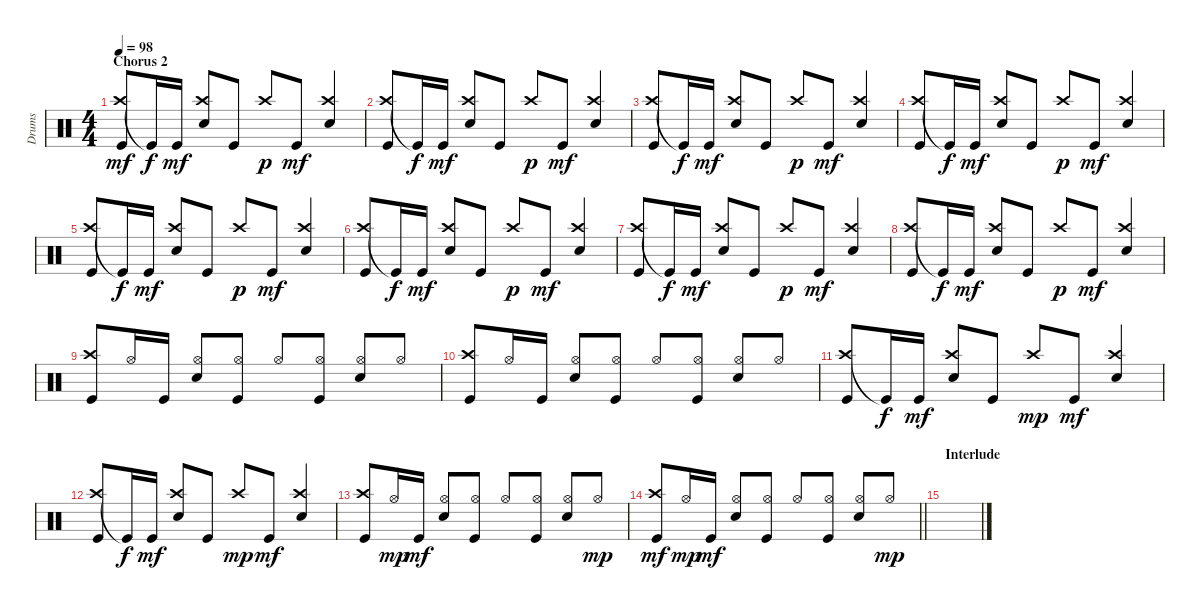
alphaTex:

\track ("Drums" "Drums") {instrument percussion}
\staff {score}
\articulation defaults
\ts (4 4)
\section ("" "Chorus 2")
\tempo 98
\clef neutral
\ks c
("Crash high (hit)" "Kick (hit)").8{dy mf beam Up} "Kick (hit)"{t}.16{dy f beam Up} "Kick (hit)".16{dy mf beam Up} ("Crash high (hit)" "Snare (hit) 2").8{beam Up} "Kick (hit)".8{beam Up} "Crash high (hit)".8{dy p beam Up} "Kick (hit)".8{dy mf beam Up} ("Crash high (hit)" "Snare (hit) 2").4{beam Up} |
("Crash high (hit)" "Kick (hit)").8{beam Up} "Kick (hit)"{t}.16{dy f beam Up} "Kick (hit)".16{dy mf beam Up} ("Crash high (hit)" "Snare (hit) 2").8{beam Up} "Kick (hit)".8{beam Up} "Crash high (hit)".8{dy p beam Up} "Kick (hit)".8{dy mf beam Up} ("Crash high (hit)" "Snare (hit) 2").4{beam Up} |
("Crash high (hit)" "Kick (hit)").8{beam Up} "Kick (hit)"{t}.16{dy f beam Up} "Kick (hit)".16{dy mf beam Up} ("Crash high (hit)" "Snare (hit) 2").8{beam Up} "Kick (hit)".8{beam Up} "Crash high (hit)".8{dy p beam Up} "Kick (hit)".8{dy mf beam Up} ("Crash high (hit)" "Snare (hit) 2").4{beam Up} |
("Crash high (hit)" "Kick (hit)").8{beam Up} "Kick (hit)"{t}.16{dy f beam Up} "Kick (hit)".16{dy mf beam Up} ("Crash high (hit)" "Snare (hit) 2").8{beam Up} "Kick (hit)".8{beam Up} "Crash high (hit)".8{dy p beam Up} "Kick (hit)".8{dy mf beam Up} ("Crash high (hit)" "Snare (hit) 2").4{beam Up} |
("Crash high (hit)" "Kick (hit)").8{beam Up} "Kick (hit)"{t}.16{dy f beam Up} "Kick (hit)".16{dy mf beam Up} ("Crash high (hit)" "Snare (hit) 2").8{beam Up} "Kick (hit)".8{beam Up} "Crash high (hit)".8{dy p beam Up} "Kick (hit)".8{dy mf beam Up} ("Crash high (hit)" "Snare (hit) 2").4{beam Up} |
("Crash high (hit)" "Kick (hit)").8{beam Up} "Kick (hit)"{t}.16{dy f beam Up} "Kick (hit)".16{dy mf beam Up} ("Crash high (hit)" "Snare (hit) 2").8{beam Up} "Kick (hit)".8{beam Up} "Crash high (hit)".8{dy p beam Up} "Kick (hit)".8{dy mf beam Up} ("Crash high (hit)" "Snare (hit) 2").4{beam Up} |
("Crash high (hit)" "Kick (hit)").8{beam Up} "Kick (hit)"{t}.16{dy f beam Up} "Kick (hit)".16{dy mf beam Up} ("Crash high (hit)" "Snare (hit) 2").8{beam Up} "Kick (hit)".8{beam Up} "Crash high (hit)".8{dy p beam Up} "Kick (hit)".8{dy mf beam Up} ("Crash high (hit)" "Snare (hit) 2").4{beam Up} |
("Crash high (hit)" "Kick (hit)").8{beam Up} "Kick (hit)"{t}.16{dy f beam Up} "Kick (hit)".16{dy mf beam Up} ("Crash high (hit)" "Snare (hit) 2").8{beam Up} "Kick (hit)".8{beam Up} "Crash high (hit)".8{dy p beam Up} "Kick (hit)".8{dy mf beam Up} ("Crash high (hit)" "Snare (hit) 2").4{beam Up} |
("Crash high (hit)" "Kick (hit)").8{beam Up} "Hi-Hat (open)".16{beam Up} "Kick (hit)".16{beam Up} ("Hi-Hat (open)" "Snare (hit) 2").8{beam Up} ("Hi-Hat (open)" "Kick (hit)").8{beam Up} "Hi-Hat (open)".8{beam Up} ("Hi-Hat (open)" "Kick (hit)").8{beam Up} ("Hi-Hat (open)" "Snare (hit) 2").8{beam Up} "Hi-Hat (open)".8{beam Up} |
("Crash high (hit)" "Kick (hit)").8{beam Up} "Hi-Hat (open)".16{beam Up} "Kick (hit)".16{beam Up} ("Hi-Hat (open)" "Snare (hit) 2").8{beam Up} ("Hi-Hat (open)" "Kick (hit)").8{beam Up} "Hi-Hat (open)".8{beam Up} ("Hi-Hat (open)" "Kick (hit)").8{beam Up} ("Hi-Hat (open)" "Snare (hit) 2").8{beam Up} "Hi-Hat (open)".8{beam Up} |
("Crash high (hit)" "Kick (hit)").8{beam Up} "Kick (hit)"{t}.16{dy f beam Up} "Kick (hit)".16{dy mf beam Up} ("Crash high (hit)" "Snare (hit) 2").8{beam Up} "Kick (hit)".8{beam Up} "Crash high (hit)".8{dy mp beam Up} "Kick (hit)".8{dy mf beam Up} ("Crash high (hit)" "Snare (hit) 2").4{beam Up} |
("Crash high (hit)" "Kick (hit)").8{beam Up} "Kick (hit)"{t}.16{dy f beam Up} "Kick (hit)".16{dy mf beam Up} ("Crash high (hit)" "Snare (hit) 2").8{beam Up} "Kick (hit)".8{beam Up} "Crash high (hit)".8{dy mp beam Up} "Kick (hit)".8{dy mf beam Up} ("Crash high (hit)" "Snare (hit) 2").4{beam Up} |
("Crash high (hit)" "Kick (hit)").8{beam Up} "Hi-Hat (open)".16{dy mp beam Up} "Kick (hit)".16{dy mf beam Up} ("Hi-Hat (open)" "Snare (hit) 2").8{beam Up} ("Hi-Hat (open)" "Kick (hit)").8{beam Up} "Hi-Hat (open)".8{beam Up} ("Hi-Hat (open)" "Kick (hit)").8{beam Up} ("Hi-Hat (open)" "Snare (hit) 2").8{beam Up} "Hi-Hat (open)".8{dy mp beam Up} |
\barLineRight lightlight
("Crash high (hit)" "Kick (hit)").8{dy mf beam Up} "Hi-Hat (open)".16{dy mp beam Up} "Kick (hit)".16{dy mf beam Up} ("Hi-Hat (open)" "Snare (hit) 2").8{beam Up} ("Hi-Hat (open)" "Kick (hit)").8{beam Up} "Hi-Hat (open)".8{beam Up} ("Hi-Hat (open)" "Kick (hit)").8{beam Up} ("Hi-Hat (open)" "Snare (hit) 2").8{beam Up} "Hi-Hat (open)".8{dy mp beam Up} |
\section ("" "Interlude")
